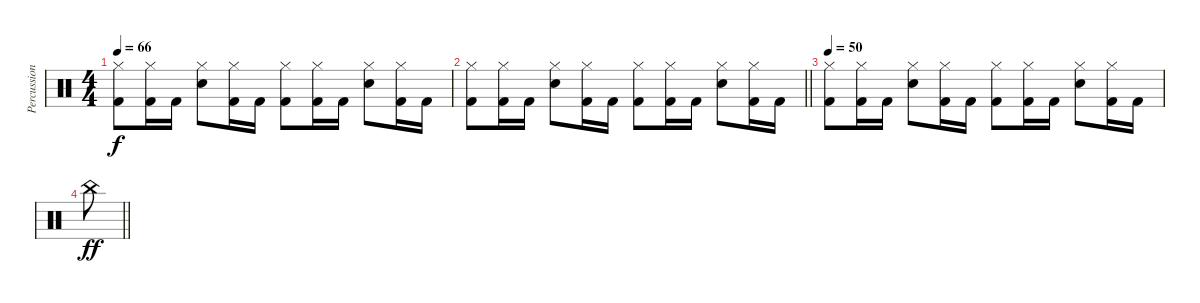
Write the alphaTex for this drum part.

\track ("Percussion" "Percussion") {instrument percussion}
\staff {score}
\articulation defaults
\ts (4 4)
\tempo 66
\clef neutral
\ks c
("Hi-Hat (closed)" "Kick (hit) 2").8{dy f} ("Hi-Hat (closed)" "Kick (hit) 2").16 "Kick (hit) 2".16 ("Hi-Hat (closed)" "Electric Snare (hit)").8 ("Hi-Hat (closed)" "Kick (hit) 2").16 "Kick (hit) 2".16 ("Hi-Hat (closed)" "Kick (hit) 2").8 ("Hi-Hat (closed)" "Kick (hit) 2").16 "Kick (hit) 2".16 ("Hi-Hat (closed)" "Electric Snare (hit)").8 ("Hi-Hat (closed)" "Kick (hit) 2").16 "Kick (hit) 2".16 |
\barLineRight lightlight
("Hi-Hat (closed)" "Kick (hit) 2").8 ("Hi-Hat (closed)" "Kick (hit) 2").16 "Kick (hit) 2".16 ("Hi-Hat (closed)" "Electric Snare (hit)").8 ("Hi-Hat (closed)" "Kick (hit) 2").16 "Kick (hit) 2".16 ("Hi-Hat (closed)" "Kick (hit) 2").8 ("Hi-Hat (closed)" "Kick (hit) 2").16 "Kick (hit) 2".16 ("Hi-Hat (closed)" "Electric Snare (hit)").8 ("Hi-Hat (closed)" "Kick (hit) 2").16 "Kick (hit) 2".16 |
\tempo 50
("Hi-Hat (closed)" "Kick (hit) 2").8 ("Hi-Hat (closed)" "Kick (hit) 2").16 "Kick (hit) 2".16 ("Hi-Hat (closed)" "Electric Snare (hit)").8 ("Hi-Hat (closed)" "Kick (hit) 2").16 "Kick (hit) 2".16 ("Hi-Hat (closed)" "Kick (hit) 2").8 ("Hi-Hat (closed)" "Kick (hit) 2").16 "Kick (hit) 2".16 ("Hi-Hat (closed)" "Electric Snare (hit)").8 ("Hi-Hat (closed)" "Kick (hit) 2").16 "Kick (hit) 2".16 |
\barLineRight lightlight "China (hit)".8{dy ff}
